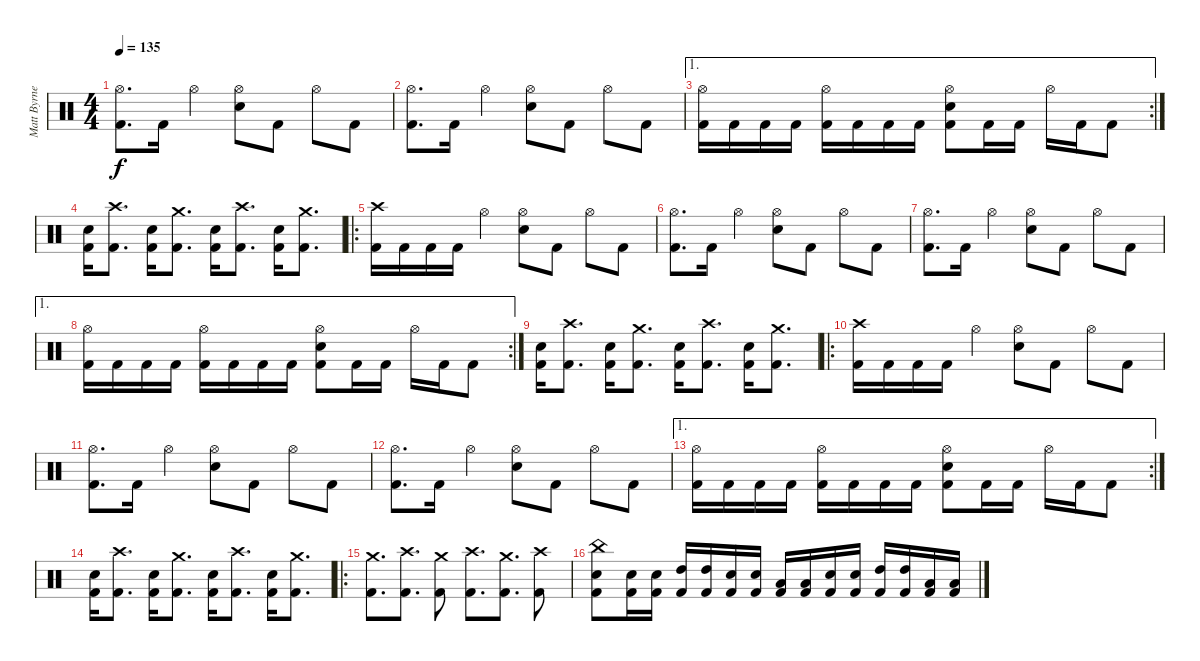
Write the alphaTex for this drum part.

\track ("Matt Byrne" "Matt Byrne") {instrument percussion}
\staff {score}
\articulation defaults
\ts (4 4)
\tempo 135
\clef neutral
\ks c
("Hi-Hat (open)" "Kick (hit) 2").8{d dy f} "Kick (hit) 2".16 "Hi-Hat (open)".4 ("Hi-Hat (open)" "Electric Snare (hit)").8 "Kick (hit) 2".8 "Hi-Hat (open)".8 "Kick (hit) 2".8 |
("Hi-Hat (open)" "Kick (hit) 2").8{d} "Kick (hit) 2".16 "Hi-Hat (open)".4 ("Hi-Hat (open)" "Electric Snare (hit)").8 "Kick (hit) 2".8 "Hi-Hat (open)".8 "Kick (hit) 2".8 |
\ae 1
\rc 2
("Hi-Hat (open)" "Kick (hit) 2").16 "Kick (hit) 2".16 "Kick (hit) 2".16 "Kick (hit) 2".16 ("Hi-Hat (open)" "Kick (hit) 2").16 "Kick (hit) 2".16 "Kick (hit) 2".16 "Kick (hit) 2".16 ("Hi-Hat (open)" "Electric Snare (hit)" "Kick (hit) 2").8 "Kick (hit) 2".16 "Kick (hit) 2".16 "Hi-Hat (open)".16 "Kick (hit) 2".16 "Kick (hit) 2".8 |
("Electric Snare (hit)" "Kick (hit) 2").16 ("Crash high (hit)" "Kick (hit) 2").8{d} ("Electric Snare (hit)" "Kick (hit) 2").16 ("Crash medium (hit)" "Kick (hit) 2").8{d} ("Electric Snare (hit)" "Kick (hit) 2").16 ("Crash high (hit)" "Kick (hit) 2").8{d} ("Electric Snare (hit)" "Kick (hit) 2").16 ("Crash medium (hit)" "Kick (hit) 2").8{d} |
\ro
("Crash high (hit)" "Kick (hit) 2").16 "Kick (hit) 2".16 "Kick (hit) 2".16 "Kick (hit) 2".16 "Hi-Hat (open)".4 ("Hi-Hat (open)" "Electric Snare (hit)").8 "Kick (hit) 2".8 "Hi-Hat (open)".8 "Kick (hit) 2".8 |
("Hi-Hat (open)" "Kick (hit) 2").8{d} "Kick (hit) 2".16 "Hi-Hat (open)".4 ("Hi-Hat (open)" "Electric Snare (hit)").8 "Kick (hit) 2".8 "Hi-Hat (open)".8 "Kick (hit) 2".8 |
("Hi-Hat (open)" "Kick (hit) 2").8{d} "Kick (hit) 2".16 "Hi-Hat (open)".4 ("Hi-Hat (open)" "Electric Snare (hit)").8 "Kick (hit) 2".8 "Hi-Hat (open)".8 "Kick (hit) 2".8 |
\ae 1
\rc 2
("Hi-Hat (open)" "Kick (hit) 2").16 "Kick (hit) 2".16 "Kick (hit) 2".16 "Kick (hit) 2".16 ("Hi-Hat (open)" "Kick (hit) 2").16 "Kick (hit) 2".16 "Kick (hit) 2".16 "Kick (hit) 2".16 ("Hi-Hat (open)" "Electric Snare (hit)" "Kick (hit) 2").8 "Kick (hit) 2".16 "Kick (hit) 2".16 "Hi-Hat (open)".16 "Kick (hit) 2".16 "Kick (hit) 2".8 |
("Electric Snare (hit)" "Kick (hit) 2").16 ("Crash high (hit)" "Kick (hit) 2").8{d} ("Electric Snare (hit)" "Kick (hit) 2").16 ("Crash medium (hit)" "Kick (hit) 2").8{d} ("Electric Snare (hit)" "Kick (hit) 2").16 ("Crash high (hit)" "Kick (hit) 2").8{d} ("Electric Snare (hit)" "Kick (hit) 2").16 ("Crash medium (hit)" "Kick (hit) 2").8{d} |
\ro
("Crash high (hit)" "Kick (hit) 2").16 "Kick (hit) 2".16 "Kick (hit) 2".16 "Kick (hit) 2".16 "Hi-Hat (open)".4 ("Hi-Hat (open)" "Electric Snare (hit)").8 "Kick (hit) 2".8 "Hi-Hat (open)".8 "Kick (hit) 2".8 |
("Hi-Hat (open)" "Kick (hit) 2").8{d} "Kick (hit) 2".16 "Hi-Hat (open)".4 ("Hi-Hat (open)" "Electric Snare (hit)").8 "Kick (hit) 2".8 "Hi-Hat (open)".8 "Kick (hit) 2".8 |
("Hi-Hat (open)" "Kick (hit) 2").8{d} "Kick (hit) 2".16 "Hi-Hat (open)".4 ("Hi-Hat (open)" "Electric Snare (hit)").8 "Kick (hit) 2".8 "Hi-Hat (open)".8 "Kick (hit) 2".8 |
\ae 1
\rc 2
("Hi-Hat (open)" "Kick (hit) 2").16 "Kick (hit) 2".16 "Kick (hit) 2".16 "Kick (hit) 2".16 ("Hi-Hat (open)" "Kick (hit) 2").16 "Kick (hit) 2".16 "Kick (hit) 2".16 "Kick (hit) 2".16 ("Hi-Hat (open)" "Electric Snare (hit)" "Kick (hit) 2").8 "Kick (hit) 2".16 "Kick (hit) 2".16 "Hi-Hat (open)".16 "Kick (hit) 2".16 "Kick (hit) 2".8 |
("Electric Snare (hit)" "Kick (hit) 2").16 ("Crash high (hit)" "Kick (hit) 2").8{d} ("Electric Snare (hit)" "Kick (hit) 2").16 ("Crash medium (hit)" "Kick (hit) 2").8{d} ("Electric Snare (hit)" "Kick (hit) 2").16 ("Crash high (hit)" "Kick (hit) 2").8{d} ("Electric Snare (hit)" "Kick (hit) 2").16 ("Crash medium (hit)" "Kick (hit) 2").8{d} |
\ro
("Crash medium (hit)" "Kick (hit) 2").8{d} ("Crash high (hit)" "Kick (hit) 2").8{d} ("Crash medium (hit)" "Kick (hit) 2").8 ("Crash high (hit)" "Kick (hit) 2").8{d} ("Crash medium (hit)" "Kick (hit) 2").8{d} ("Crash high (hit)" "Kick (hit) 2").8 |
("China (hit)" "Electric Snare (hit)" "Kick (hit) 2").8 ("Electric Snare (hit)" "Kick (hit) 2").16 ("Electric Snare (hit)" "Kick (hit) 2").16 ("High Tom (hit)" "Kick (hit) 2").16 ("High Tom (hit)" "Kick (hit) 2").16 ("Electric Snare (hit)" "Kick (hit) 2").16 ("Electric Snare (hit)" "Kick (hit) 2").16 ("Low Tom (hit)" "Kick (hit) 2").16 ("Low Tom (hit)" "Kick (hit) 2").16 ("Electric Snare (hit)" "Kick (hit) 2").16 ("Electric Snare (hit)" "Kick (hit) 2").16 ("High Tom (hit)" "Kick (hit) 2").16 ("High Tom (hit)" "Kick (hit) 2").16 ("Low Tom (hit)" "Kick (hit) 2").16 ("Low Tom (hit)" "Kick (hit) 2").16
